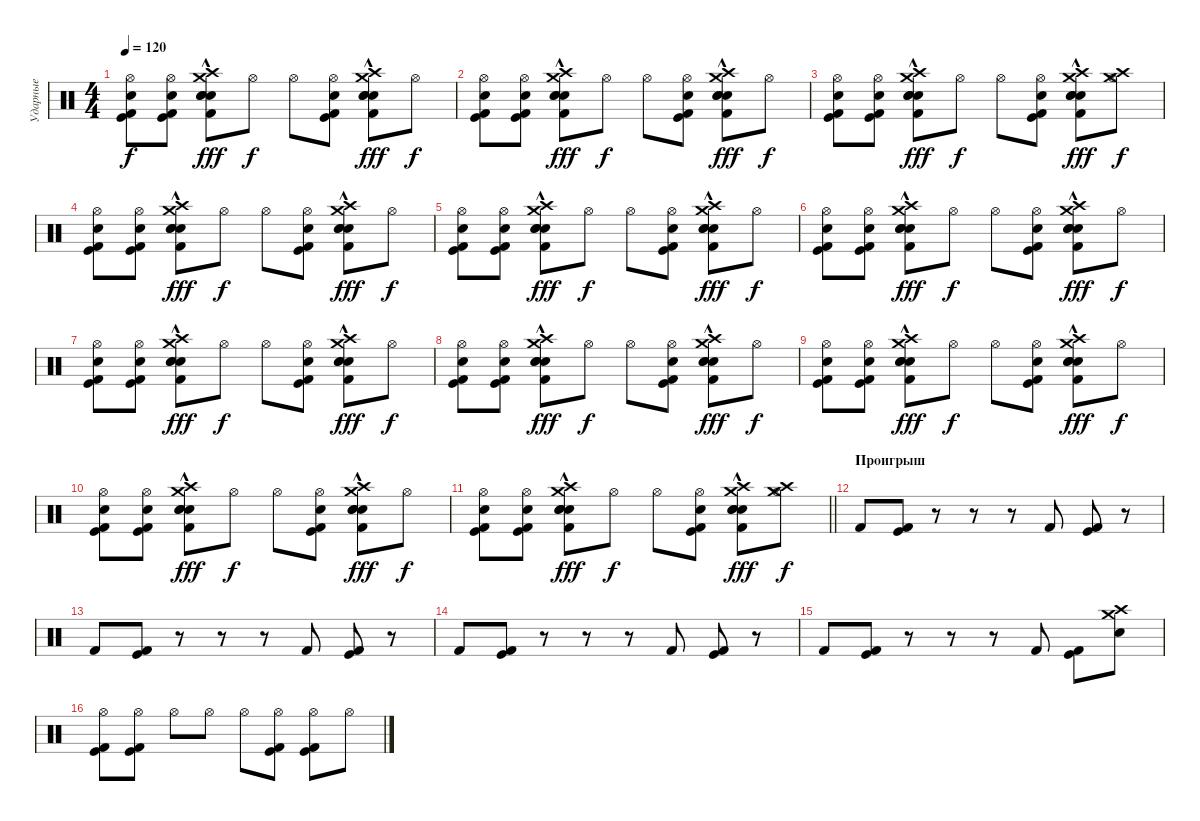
\track ("Ударные" "Ударные") {instrument percussion}
\staff {score}
\articulation defaults
\ts (4 4)
\tempo 120
\clef neutral
\ks c
("Hi-Hat (open)" "Electric Snare (hit)" "Kick (hit)" "Kick (hit) 2").8{dy f} ("Hi-Hat (open)" "Electric Snare (hit)" "Kick (hit)" "Kick (hit) 2").8 ("Snare (hit) 2" "Crash high (hit)"{hac} "Crash medium (hit)"{hac} "Snare (hit) 2"{hac} "Snare (hit) 2"{hac} "Kick (hit) 2").8{dy fff} "Hi-Hat (open)".8{dy f} "Hi-Hat (open)".8 ("Hi-Hat (open)" "Electric Snare (hit)" "Kick (hit)" "Kick (hit) 2").8 ("Snare (hit) 2" "Crash high (hit)"{hac} "Crash medium (hit)"{hac} "Snare (hit) 2"{hac} "Snare (hit) 2"{hac} "Kick (hit) 2").8{dy fff} "Hi-Hat (open)".8{dy f} |
("Hi-Hat (open)" "Electric Snare (hit)" "Kick (hit)" "Kick (hit) 2").8 ("Hi-Hat (open)" "Electric Snare (hit)" "Kick (hit)" "Kick (hit) 2").8 ("Snare (hit) 2" "Crash high (hit)"{hac} "Crash medium (hit)"{hac} "Snare (hit) 2"{hac} "Snare (hit) 2"{hac} "Kick (hit) 2").8{dy fff} "Hi-Hat (open)".8{dy f} "Hi-Hat (open)".8 ("Hi-Hat (open)" "Electric Snare (hit)" "Kick (hit)" "Kick (hit) 2").8 ("Snare (hit) 2" "Crash high (hit)"{hac} "Crash medium (hit)"{hac} "Snare (hit) 2"{hac} "Snare (hit) 2"{hac} "Kick (hit) 2").8{dy fff} "Hi-Hat (open)".8{dy f} |
("Hi-Hat (open)" "Electric Snare (hit)" "Kick (hit)" "Kick (hit) 2").8 ("Hi-Hat (open)" "Electric Snare (hit)" "Kick (hit)" "Kick (hit) 2").8 ("Snare (hit) 2" "Crash high (hit)"{hac} "Crash medium (hit)"{hac} "Snare (hit) 2"{hac} "Snare (hit) 2"{hac} "Kick (hit) 2").8{dy fff} "Hi-Hat (open)".8{dy f} "Hi-Hat (open)".8 ("Hi-Hat (open)" "Electric Snare (hit)" "Kick (hit)" "Kick (hit) 2").8 ("Snare (hit) 2" "Crash high (hit)"{hac} "Crash medium (hit)"{hac} "Snare (hit) 2"{hac} "Snare (hit) 2"{hac} "Kick (hit) 2").8{dy fff} ("Hi-Hat (open)" "Crash high (hit)" "Crash medium (hit)").8{dy f} |
("Hi-Hat (open)" "Electric Snare (hit)" "Kick (hit)" "Kick (hit) 2").8 ("Hi-Hat (open)" "Electric Snare (hit)" "Kick (hit)" "Kick (hit) 2").8 ("Snare (hit) 2" "Crash high (hit)"{hac} "Crash medium (hit)"{hac} "Snare (hit) 2"{hac} "Snare (hit) 2"{hac} "Kick (hit) 2").8{dy fff} "Hi-Hat (open)".8{dy f} "Hi-Hat (open)".8 ("Hi-Hat (open)" "Electric Snare (hit)" "Kick (hit)" "Kick (hit) 2").8 ("Snare (hit) 2" "Crash high (hit)"{hac} "Crash medium (hit)"{hac} "Snare (hit) 2"{hac} "Snare (hit) 2"{hac} "Kick (hit) 2").8{dy fff} "Hi-Hat (open)".8{dy f} |
("Hi-Hat (open)" "Electric Snare (hit)" "Kick (hit)" "Kick (hit) 2").8 ("Hi-Hat (open)" "Electric Snare (hit)" "Kick (hit)" "Kick (hit) 2").8 ("Snare (hit) 2" "Crash high (hit)"{hac} "Crash medium (hit)"{hac} "Snare (hit) 2"{hac} "Snare (hit) 2"{hac} "Kick (hit) 2").8{dy fff} "Hi-Hat (open)".8{dy f} "Hi-Hat (open)".8 ("Hi-Hat (open)" "Electric Snare (hit)" "Kick (hit)" "Kick (hit) 2").8 ("Snare (hit) 2" "Crash high (hit)"{hac} "Crash medium (hit)"{hac} "Snare (hit) 2"{hac} "Snare (hit) 2"{hac} "Kick (hit) 2").8{dy fff} "Hi-Hat (open)".8{dy f} |
("Hi-Hat (open)" "Electric Snare (hit)" "Kick (hit)" "Kick (hit) 2").8 ("Hi-Hat (open)" "Electric Snare (hit)" "Kick (hit)" "Kick (hit) 2").8 ("Snare (hit) 2" "Crash high (hit)"{hac} "Crash medium (hit)"{hac} "Snare (hit) 2"{hac} "Snare (hit) 2"{hac} "Kick (hit) 2").8{dy fff} "Hi-Hat (open)".8{dy f} "Hi-Hat (open)".8 ("Hi-Hat (open)" "Electric Snare (hit)" "Kick (hit)" "Kick (hit) 2").8 ("Snare (hit) 2" "Crash high (hit)"{hac} "Crash medium (hit)"{hac} "Snare (hit) 2"{hac} "Snare (hit) 2"{hac} "Kick (hit) 2").8{dy fff} "Hi-Hat (open)".8{dy f} |
("Hi-Hat (open)" "Electric Snare (hit)" "Kick (hit)" "Kick (hit) 2").8 ("Hi-Hat (open)" "Electric Snare (hit)" "Kick (hit)" "Kick (hit) 2").8 ("Snare (hit) 2" "Crash high (hit)"{hac} "Crash medium (hit)"{hac} "Snare (hit) 2"{hac} "Snare (hit) 2"{hac} "Kick (hit) 2").8{dy fff} "Hi-Hat (open)".8{dy f} "Hi-Hat (open)".8 ("Hi-Hat (open)" "Electric Snare (hit)" "Kick (hit)" "Kick (hit) 2").8 ("Snare (hit) 2" "Crash high (hit)"{hac} "Crash medium (hit)"{hac} "Snare (hit) 2"{hac} "Snare (hit) 2"{hac} "Kick (hit) 2").8{dy fff} "Hi-Hat (open)".8{dy f} |
("Hi-Hat (open)" "Electric Snare (hit)" "Kick (hit)" "Kick (hit) 2").8 ("Hi-Hat (open)" "Electric Snare (hit)" "Kick (hit)" "Kick (hit) 2").8 ("Snare (hit) 2" "Crash high (hit)"{hac} "Crash medium (hit)"{hac} "Snare (hit) 2"{hac} "Snare (hit) 2"{hac} "Kick (hit) 2").8{dy fff} "Hi-Hat (open)".8{dy f} "Hi-Hat (open)".8 ("Hi-Hat (open)" "Electric Snare (hit)" "Kick (hit)" "Kick (hit) 2").8 ("Snare (hit) 2" "Crash high (hit)"{hac} "Crash medium (hit)"{hac} "Snare (hit) 2"{hac} "Snare (hit) 2"{hac} "Kick (hit) 2").8{dy fff} "Hi-Hat (open)".8{dy f} |
("Hi-Hat (open)" "Electric Snare (hit)" "Kick (hit)" "Kick (hit) 2").8 ("Hi-Hat (open)" "Electric Snare (hit)" "Kick (hit)" "Kick (hit) 2").8 ("Snare (hit) 2" "Crash high (hit)"{hac} "Crash medium (hit)"{hac} "Snare (hit) 2"{hac} "Snare (hit) 2"{hac} "Kick (hit) 2").8{dy fff} "Hi-Hat (open)".8{dy f} "Hi-Hat (open)".8 ("Hi-Hat (open)" "Electric Snare (hit)" "Kick (hit)" "Kick (hit) 2").8 ("Snare (hit) 2" "Crash high (hit)"{hac} "Crash medium (hit)"{hac} "Snare (hit) 2"{hac} "Snare (hit) 2"{hac} "Kick (hit) 2").8{dy fff} "Hi-Hat (open)".8{dy f} |
("Hi-Hat (open)" "Electric Snare (hit)" "Kick (hit)" "Kick (hit) 2").8 ("Hi-Hat (open)" "Electric Snare (hit)" "Kick (hit)" "Kick (hit) 2").8 ("Snare (hit) 2" "Crash high (hit)"{hac} "Crash medium (hit)"{hac} "Snare (hit) 2"{hac} "Snare (hit) 2"{hac} "Kick (hit) 2").8{dy fff} "Hi-Hat (open)".8{dy f} "Hi-Hat (open)".8 ("Hi-Hat (open)" "Electric Snare (hit)" "Kick (hit)" "Kick (hit) 2").8 ("Snare (hit) 2" "Crash high (hit)"{hac} "Crash medium (hit)"{hac} "Snare (hit) 2"{hac} "Snare (hit) 2"{hac} "Kick (hit) 2").8{dy fff} "Hi-Hat (open)".8{dy f} |
\barLineRight lightlight
("Hi-Hat (open)" "Electric Snare (hit)" "Kick (hit)" "Kick (hit) 2").8 ("Hi-Hat (open)" "Electric Snare (hit)" "Kick (hit)" "Kick (hit) 2").8 ("Snare (hit) 2" "Crash high (hit)"{hac} "Crash medium (hit)"{hac} "Snare (hit) 2"{hac} "Snare (hit) 2"{hac} "Kick (hit) 2").8{dy fff} "Hi-Hat (open)".8{dy f} "Hi-Hat (open)".8 ("Hi-Hat (open)" "Electric Snare (hit)" "Kick (hit)" "Kick (hit) 2").8 ("Snare (hit) 2" "Crash high (hit)"{hac} "Crash medium (hit)"{hac} "Snare (hit) 2"{hac} "Snare (hit) 2"{hac} "Kick (hit) 2").8{dy fff} ("Hi-Hat (open)" "Crash high (hit)" "Crash medium (hit)").8{dy f} |
\section ("" "Проигрыш")
"Kick (hit) 2".8 ("Kick (hit)" "Kick (hit) 2").8 r.8 r.8 r.8 "Kick (hit) 2".8 ("Kick (hit)" "Kick (hit) 2").8 r.8 |
"Kick (hit) 2".8 ("Kick (hit)" "Kick (hit) 2").8 r.8 r.8 r.8 "Kick (hit) 2".8 ("Kick (hit)" "Kick (hit) 2").8 r.8 |
"Kick (hit) 2".8 ("Kick (hit)" "Kick (hit) 2").8 r.8 r.8 r.8 "Kick (hit) 2".8 ("Kick (hit)" "Kick (hit) 2").8 r.8 |
"Kick (hit) 2".8 ("Kick (hit)" "Kick (hit) 2").8 r.8 r.8 r.8 "Kick (hit) 2".8 ("Kick (hit)" "Kick (hit) 2").8 ("Crash high (hit)" "Crash medium (hit)" "Snare (hit) 2").8 |
("Hi-Hat (open)" "Kick (hit)" "Kick (hit) 2").8 ("Hi-Hat (open)" "Kick (hit)" "Kick (hit) 2").8 "Hi-Hat (open)".8 "Hi-Hat (open)".8 "Hi-Hat (open)".8 ("Hi-Hat (open)" "Kick (hit)" "Kick (hit) 2").8 ("Hi-Hat (open)" "Kick (hit)" "Kick (hit) 2").8 "Hi-Hat (open)".8
